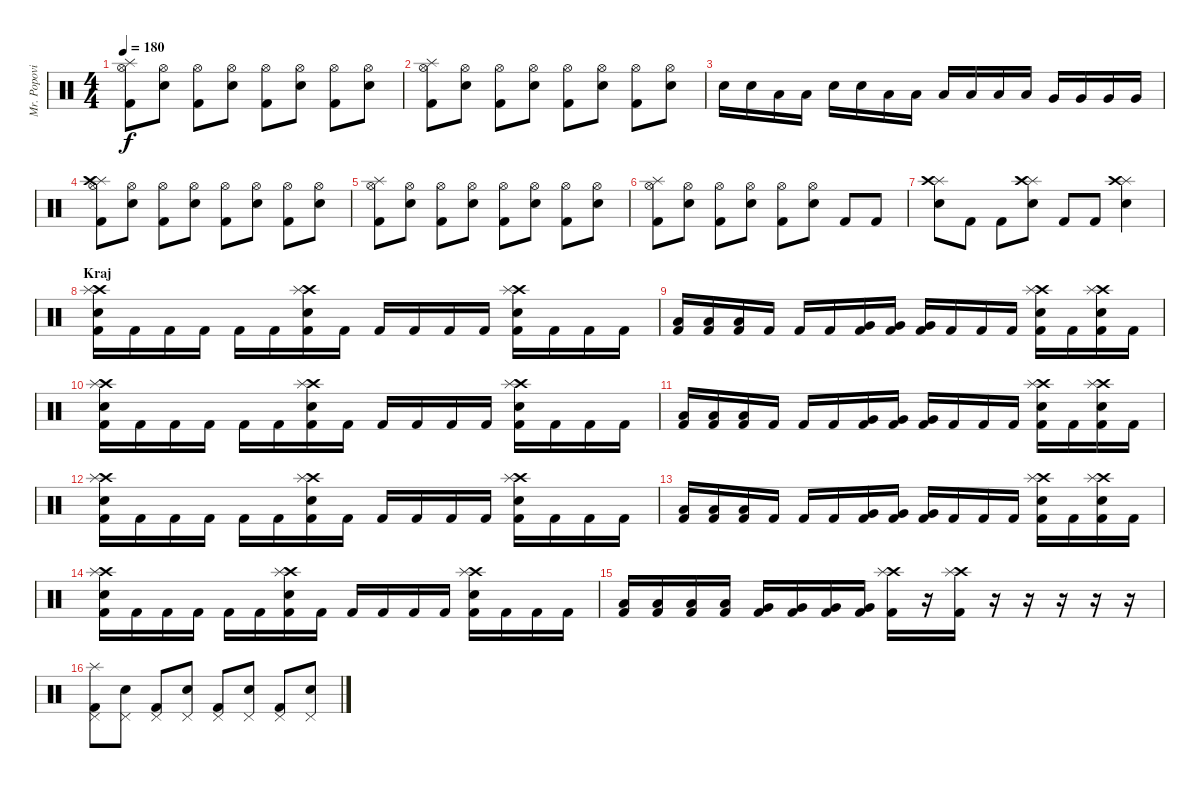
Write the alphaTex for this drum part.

\track ("Mr. Popovic" "Mr. Popovi") {instrument percussion}
\staff {score}
\articulation defaults
\ts (4 4)
\tempo 180
\clef neutral
\ks c
("Splash (hit)" "Hi-Hat (open)" "Kick (hit) 2").8{dy f} ("Hi-Hat (open)" "Electric Snare (hit)").8 ("Hi-Hat (open)" "Kick (hit) 2").8 ("Hi-Hat (open)" "Electric Snare (hit)").8 ("Hi-Hat (open)" "Kick (hit) 2").8 ("Hi-Hat (open)" "Electric Snare (hit)").8 ("Hi-Hat (open)" "Kick (hit) 2").8 ("Hi-Hat (open)" "Electric Snare (hit)").8 |
("Splash (hit)" "Hi-Hat (open)" "Kick (hit) 2").8 ("Hi-Hat (open)" "Electric Snare (hit)").8 ("Hi-Hat (open)" "Kick (hit) 2").8 ("Hi-Hat (open)" "Electric Snare (hit)").8 ("Hi-Hat (open)" "Kick (hit) 2").8 ("Hi-Hat (open)" "Electric Snare (hit)").8 ("Hi-Hat (open)" "Kick (hit) 2").8 ("Hi-Hat (open)" "Electric Snare (hit)").8 |
"Electric Snare (hit)".16 "Electric Snare (hit)".16 "Low Tom (hit)".16 "Low Tom (hit)".16 "Electric Snare (hit)".16 "Electric Snare (hit)".16 "Low Tom (hit)".16 "Low Tom (hit)".16 "Low Tom (hit)".16 "Low Tom (hit)".16 "Low Tom (hit)".16 "Low Tom (hit)".16 "Very Low Tom (hit)".16 "Very Low Tom (hit)".16 "Very Low Tom (hit)".16 "Very Low Tom (hit)".16 |
("Splash (hit)" "Crash high (hit)" "Hi-Hat (open)" "Kick (hit) 2").8 ("Hi-Hat (open)" "Electric Snare (hit)").8 ("Hi-Hat (open)" "Kick (hit) 2").8 ("Hi-Hat (open)" "Electric Snare (hit)").8 ("Hi-Hat (open)" "Kick (hit) 2").8 ("Hi-Hat (open)" "Electric Snare (hit)").8 ("Hi-Hat (open)" "Kick (hit) 2").8 ("Hi-Hat (open)" "Electric Snare (hit)").8 |
("Splash (hit)" "Hi-Hat (open)" "Kick (hit) 2").8 ("Hi-Hat (open)" "Electric Snare (hit)").8 ("Hi-Hat (open)" "Kick (hit) 2").8 ("Hi-Hat (open)" "Electric Snare (hit)").8 ("Hi-Hat (open)" "Kick (hit) 2").8 ("Hi-Hat (open)" "Electric Snare (hit)").8 ("Hi-Hat (open)" "Kick (hit) 2").8 ("Hi-Hat (open)" "Electric Snare (hit)").8 |
("Splash (hit)" "Hi-Hat (open)" "Kick (hit) 2").8 ("Hi-Hat (open)" "Electric Snare (hit)").8 ("Hi-Hat (open)" "Kick (hit) 2").8 ("Hi-Hat (open)" "Electric Snare (hit)").8 ("Hi-Hat (open)" "Kick (hit) 2").8 ("Hi-Hat (open)" "Electric Snare (hit)").8 "Kick (hit) 2".8 "Kick (hit) 2".8 |
("Splash (hit)" "Crash high (hit)" "Electric Snare (hit)").8 "Kick (hit) 2".8 "Kick (hit) 2".8 ("Splash (hit)" "Crash high (hit)" "Electric Snare (hit)").8 "Kick (hit) 2".8 "Kick (hit) 2".8 ("Splash (hit)" "Crash high (hit)" "Electric Snare (hit)").4 |
\section ("" "Kraj")
("Crash high (hit)" "Splash (hit)" "Electric Snare (hit)" "Kick (hit) 2").16 "Kick (hit) 2".16 "Kick (hit) 2".16 "Kick (hit) 2".16 "Kick (hit) 2".16 "Kick (hit) 2".16 ("Crash high (hit)" "Splash (hit)" "Electric Snare (hit)" "Kick (hit) 2").16 "Kick (hit) 2".16 "Kick (hit) 2".16 "Kick (hit) 2".16 "Kick (hit) 2".16 "Kick (hit) 2".16 ("Crash high (hit)" "Splash (hit)" "Electric Snare (hit)" "Kick (hit) 2").16 "Kick (hit) 2".16 "Kick (hit) 2".16 "Kick (hit) 2".16 |
("Low Tom (hit)" "Kick (hit) 2").16 ("Low Tom (hit)" "Kick (hit) 2").16 ("Low Tom (hit)" "Kick (hit) 2").16 "Kick (hit) 2".16 "Kick (hit) 2".16 "Kick (hit) 2".16 ("Very Low Tom (hit)" "Kick (hit) 2").16 ("Very Low Tom (hit)" "Kick (hit) 2").16 ("Very Low Tom (hit)" "Kick (hit) 2").16 "Kick (hit) 2".16 "Kick (hit) 2".16 "Kick (hit) 2".16 ("Crash high (hit)" "Splash (hit)" "Electric Snare (hit)" "Kick (hit) 2").16 "Kick (hit) 2".16 ("Crash high (hit)" "Splash (hit)" "Electric Snare (hit)" "Kick (hit) 2").16 "Kick (hit) 2".16 |
("Crash high (hit)" "Splash (hit)" "Electric Snare (hit)" "Kick (hit) 2").16 "Kick (hit) 2".16 "Kick (hit) 2".16 "Kick (hit) 2".16 "Kick (hit) 2".16 "Kick (hit) 2".16 ("Crash high (hit)" "Splash (hit)" "Electric Snare (hit)" "Kick (hit) 2").16 "Kick (hit) 2".16 "Kick (hit) 2".16 "Kick (hit) 2".16 "Kick (hit) 2".16 "Kick (hit) 2".16 ("Crash high (hit)" "Splash (hit)" "Electric Snare (hit)" "Kick (hit) 2").16 "Kick (hit) 2".16 "Kick (hit) 2".16 "Kick (hit) 2".16 |
("Low Tom (hit)" "Kick (hit) 2").16 ("Low Tom (hit)" "Kick (hit) 2").16 ("Low Tom (hit)" "Kick (hit) 2").16 "Kick (hit) 2".16 "Kick (hit) 2".16 "Kick (hit) 2".16 ("Very Low Tom (hit)" "Kick (hit) 2").16 ("Very Low Tom (hit)" "Kick (hit) 2").16 ("Very Low Tom (hit)" "Kick (hit) 2").16 "Kick (hit) 2".16 "Kick (hit) 2".16 "Kick (hit) 2".16 ("Crash high (hit)" "Splash (hit)" "Electric Snare (hit)" "Kick (hit) 2").16 "Kick (hit) 2".16 ("Crash high (hit)" "Splash (hit)" "Electric Snare (hit)" "Kick (hit) 2").16 "Kick (hit) 2".16 |
("Crash high (hit)" "Splash (hit)" "Electric Snare (hit)" "Kick (hit) 2").16 "Kick (hit) 2".16 "Kick (hit) 2".16 "Kick (hit) 2".16 "Kick (hit) 2".16 "Kick (hit) 2".16 ("Crash high (hit)" "Splash (hit)" "Electric Snare (hit)" "Kick (hit) 2").16 "Kick (hit) 2".16 "Kick (hit) 2".16 "Kick (hit) 2".16 "Kick (hit) 2".16 "Kick (hit) 2".16 ("Crash high (hit)" "Splash (hit)" "Electric Snare (hit)" "Kick (hit) 2").16 "Kick (hit) 2".16 "Kick (hit) 2".16 "Kick (hit) 2".16 |
("Low Tom (hit)" "Kick (hit) 2").16 ("Low Tom (hit)" "Kick (hit) 2").16 ("Low Tom (hit)" "Kick (hit) 2").16 "Kick (hit) 2".16 "Kick (hit) 2".16 "Kick (hit) 2".16 ("Very Low Tom (hit)" "Kick (hit) 2").16 ("Very Low Tom (hit)" "Kick (hit) 2").16 ("Very Low Tom (hit)" "Kick (hit) 2").16 "Kick (hit) 2".16 "Kick (hit) 2".16 "Kick (hit) 2".16 ("Crash high (hit)" "Splash (hit)" "Electric Snare (hit)" "Kick (hit) 2").16 "Kick (hit) 2".16 ("Crash high (hit)" "Splash (hit)" "Electric Snare (hit)" "Kick (hit) 2").16 "Kick (hit) 2".16 |
("Crash high (hit)" "Splash (hit)" "Electric Snare (hit)" "Kick (hit) 2").16 "Kick (hit) 2".16 "Kick (hit) 2".16 "Kick (hit) 2".16 "Kick (hit) 2".16 "Kick (hit) 2".16 ("Crash high (hit)" "Splash (hit)" "Electric Snare (hit)" "Kick (hit) 2").16 "Kick (hit) 2".16 "Kick (hit) 2".16 "Kick (hit) 2".16 "Kick (hit) 2".16 "Kick (hit) 2".16 ("Crash high (hit)" "Splash (hit)" "Electric Snare (hit)" "Kick (hit) 2").16 "Kick (hit) 2".16 "Kick (hit) 2".16 "Kick (hit) 2".16 |
("Low Tom (hit)" "Kick (hit) 2").16 ("Low Tom (hit)" "Kick (hit) 2").16 ("Low Tom (hit)" "Kick (hit) 2").16 ("Low Tom (hit)" "Kick (hit) 2").16 ("Very Low Tom (hit)" "Kick (hit) 2").16 ("Very Low Tom (hit)" "Kick (hit) 2").16 ("Very Low Tom (hit)" "Kick (hit) 2").16 ("Very Low Tom (hit)" "Kick (hit) 2").16 ("Crash high (hit)" "Splash (hit)" "Kick (hit) 2").16 r.16 ("Crash high (hit)" "Splash (hit)" "Kick (hit) 2").16 r.16 r.16 r.16 r.16 r.16 |
("Splash (hit)" "Pedal Hi-Hat (hit)" "Kick (hit) 2").8 ("Pedal Hi-Hat (hit)" "Electric Snare (hit)").8 ("Pedal Hi-Hat (hit)" "Kick (hit) 2").8 ("Pedal Hi-Hat (hit)" "Electric Snare (hit)").8 ("Pedal Hi-Hat (hit)" "Kick (hit) 2").8 ("Pedal Hi-Hat (hit)" "Electric Snare (hit)").8 ("Pedal Hi-Hat (hit)" "Kick (hit) 2").8 ("Pedal Hi-Hat (hit)" "Electric Snare (hit)").8
